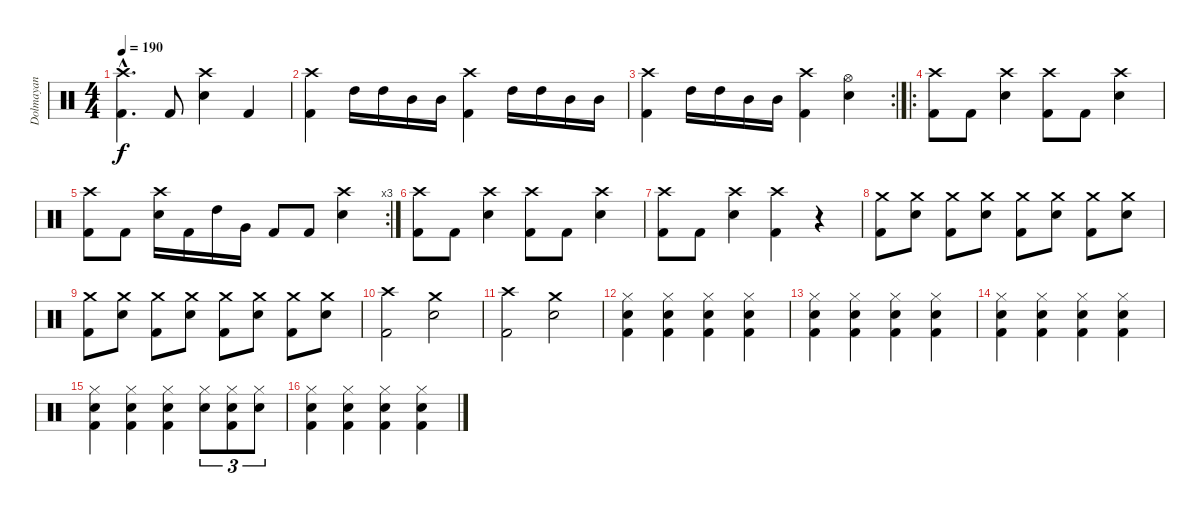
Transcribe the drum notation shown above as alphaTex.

\track ("Dolmayan" "Dolmayan") {instrument percussion}
\staff {score}
\articulation defaults
\ts (4 4)
\tempo 190
\clef neutral
\ks c
("Crash high (hit)"{hac} "Kick (hit) 2"{hac}).4{d dy f} "Kick (hit) 2".8 ("Crash high (hit)" "Electric Snare (hit)").4 "Kick (hit) 2".4 |
("Crash high (hit)" "Kick (hit) 2").4 "High Tom (hit)".16 "High Tom (hit)".16 "Mid Tom (hit)".16 "Mid Tom (hit)".16 ("Crash high (hit)" "Kick (hit) 2").4 "High Tom (hit)".16 "High Tom (hit)".16 "Mid Tom (hit)".16 "Mid Tom (hit)".16 |
\rc 2
("Crash high (hit)" "Kick (hit) 2").4 "High Tom (hit)".16 "High Tom (hit)".16 "Mid Tom (hit)".16 "Mid Tom (hit)".16 ("Crash high (hit)" "Kick (hit) 2").4 ("Hi-Hat (open)" "Electric Snare (hit)").4 |
\ro
("Crash high (hit)" "Kick (hit) 2").8 "Kick (hit) 2".8 ("Crash high (hit)" "Electric Snare (hit)").4 ("Crash high (hit)" "Kick (hit) 2").8 "Kick (hit) 2".8 ("Crash high (hit)" "Electric Snare (hit)").4 |
\rc 3
("Crash high (hit)" "Kick (hit) 2").8 "Kick (hit) 2".8 ("Crash high (hit)" "Electric Snare (hit)").16 "Kick (hit) 2".16 "High Tom (hit)".16 "Very Low Tom (hit)".16 "Kick (hit) 2".8 "Kick (hit) 2".8 ("Crash high (hit)" "Electric Snare (hit)").4 |
("Crash high (hit)" "Kick (hit) 2").8 "Kick (hit) 2".8 ("Crash high (hit)" "Electric Snare (hit)").4 ("Crash high (hit)" "Kick (hit) 2").8 "Kick (hit) 2".8 ("Crash high (hit)" "Electric Snare (hit)").4 |
("Crash high (hit)" "Kick (hit) 2").8 "Kick (hit) 2".8 ("Crash high (hit)" "Electric Snare (hit)").4 ("Crash high (hit)" "Kick (hit) 2").4 r.4 |
("Kick (hit) 2" "Crash medium (hit)").8 ("Electric Snare (hit)" "Crash medium (hit)").8 ("Kick (hit) 2" "Crash medium (hit)").8 ("Electric Snare (hit)" "Crash medium (hit)").8 ("Kick (hit) 2" "Crash medium (hit)").8 ("Electric Snare (hit)" "Crash medium (hit)").8 ("Kick (hit) 2" "Crash medium (hit)").8 ("Electric Snare (hit)" "Crash medium (hit)").8 |
("Kick (hit) 2" "Crash medium (hit)").8 ("Electric Snare (hit)" "Crash medium (hit)").8 ("Kick (hit) 2" "Crash medium (hit)").8 ("Electric Snare (hit)" "Crash medium (hit)").8 ("Kick (hit) 2" "Crash medium (hit)").8 ("Electric Snare (hit)" "Crash medium (hit)").8 ("Kick (hit) 2" "Crash medium (hit)").8 ("Electric Snare (hit)" "Crash medium (hit)").8 |
("Crash high (hit)" "Kick (hit) 2").2 ("Crash medium (hit)" "Electric Snare (hit)").2 |
("Crash high (hit)" "Kick (hit) 2").2 ("Crash medium (hit)" "Electric Snare (hit)").2 |
("Hi-Hat (closed)" "Electric Snare (hit)" "Kick (hit) 2").4 ("Hi-Hat (closed)" "Electric Snare (hit)" "Kick (hit) 2").4 ("Hi-Hat (closed)" "Electric Snare (hit)" "Kick (hit) 2").4 ("Hi-Hat (closed)" "Electric Snare (hit)" "Kick (hit) 2").4 |
("Hi-Hat (closed)" "Electric Snare (hit)" "Kick (hit) 2").4 ("Hi-Hat (closed)" "Electric Snare (hit)" "Kick (hit) 2").4 ("Hi-Hat (closed)" "Electric Snare (hit)" "Kick (hit) 2").4 ("Hi-Hat (closed)" "Electric Snare (hit)" "Kick (hit) 2").4 |
("Hi-Hat (closed)" "Electric Snare (hit)" "Kick (hit) 2").4 ("Hi-Hat (closed)" "Electric Snare (hit)" "Kick (hit) 2").4 ("Hi-Hat (closed)" "Electric Snare (hit)" "Kick (hit) 2").4 ("Hi-Hat (closed)" "Electric Snare (hit)" "Kick (hit) 2").4 |
("Hi-Hat (closed)" "Electric Snare (hit)" "Kick (hit) 2").4 ("Hi-Hat (closed)" "Electric Snare (hit)" "Kick (hit) 2").4 ("Hi-Hat (closed)" "Electric Snare (hit)" "Kick (hit) 2").4 ("Hi-Hat (closed)" "Electric Snare (hit)").8{tu (3 2)} ("Hi-Hat (closed)" "Electric Snare (hit)" "Kick (hit) 2").8{tu (3 2)} ("Hi-Hat (closed)" "Electric Snare (hit)").8{tu (3 2)} |
("Hi-Hat (closed)" "Electric Snare (hit)" "Kick (hit) 2").4 ("Hi-Hat (closed)" "Electric Snare (hit)" "Kick (hit) 2").4 ("Hi-Hat (closed)" "Electric Snare (hit)" "Kick (hit) 2").4 ("Hi-Hat (closed)" "Electric Snare (hit)" "Kick (hit) 2").4
